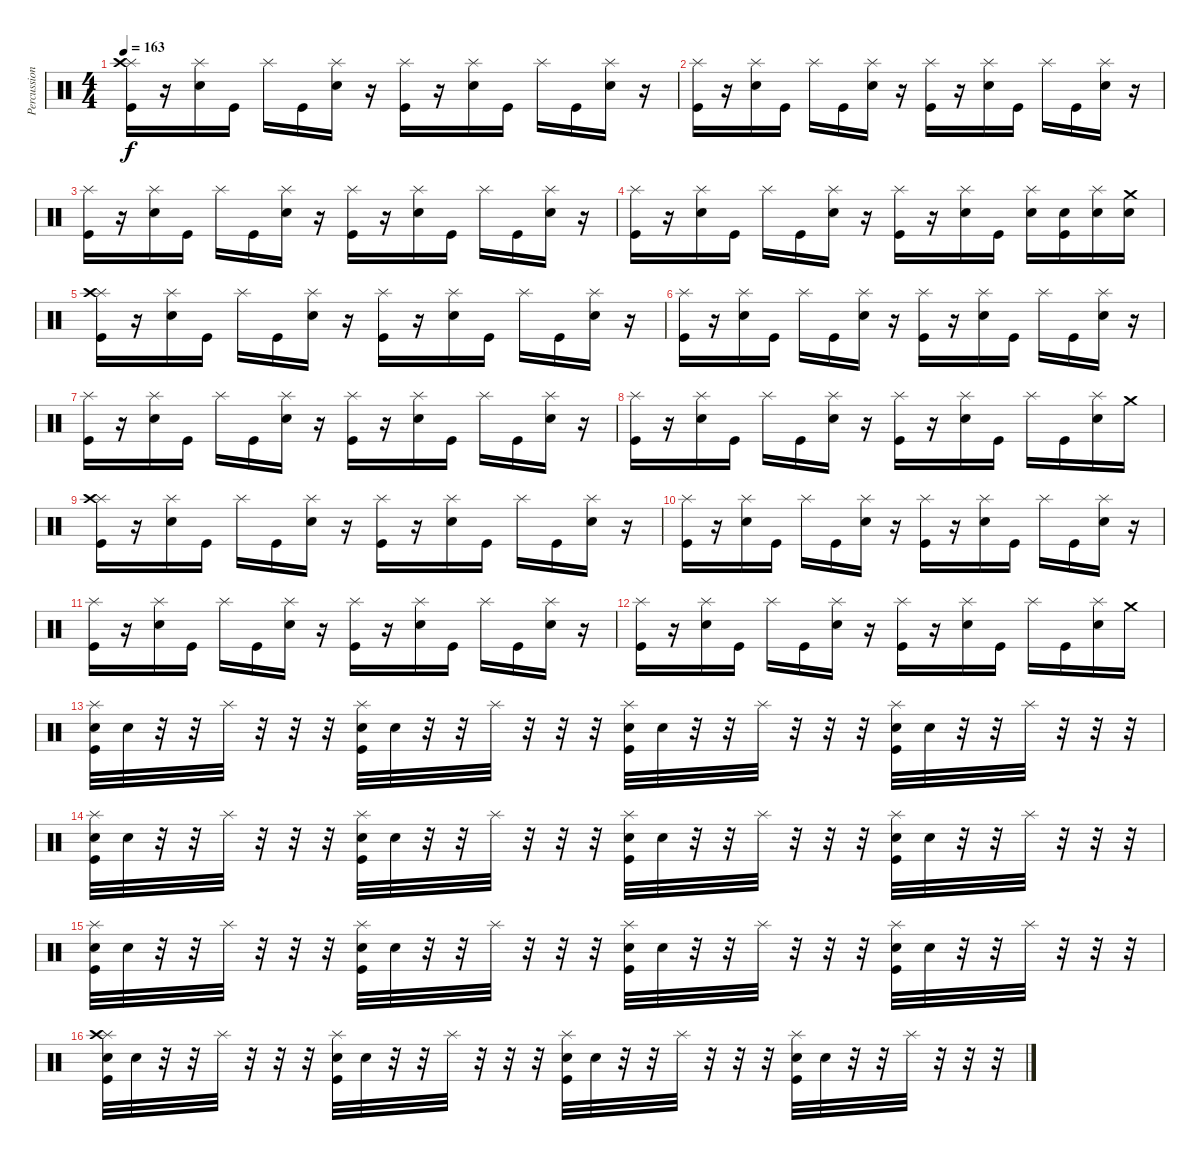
\track ("Percussions" "Percussion") {instrument percussion}
\staff {score}
\articulation defaults
\ts (4 4)
\tempo 163
\clef neutral
\ks c
("Splash (hit)" "Crash high (hit)" "Kick (hit)").16{dy f} r.16 ("Splash (hit)" "Snare (hit) 2").16 "Kick (hit)".16 "Splash (hit)".16 "Kick (hit)".16 ("Splash (hit)" "Snare (hit) 2").16 r.16 ("Splash (hit)" "Kick (hit)").16 r.16 ("Splash (hit)" "Snare (hit) 2").16 "Kick (hit)".16 "Splash (hit)".16 "Kick (hit)".16 ("Splash (hit)" "Snare (hit) 2").16 r.16 |
("Splash (hit)" "Kick (hit)").16 r.16 ("Splash (hit)" "Snare (hit) 2").16 "Kick (hit)".16 "Splash (hit)".16 "Kick (hit)".16 ("Splash (hit)" "Snare (hit) 2").16 r.16 ("Splash (hit)" "Kick (hit)").16 r.16 ("Splash (hit)" "Snare (hit) 2").16 "Kick (hit)".16 "Splash (hit)".16 "Kick (hit)".16 ("Splash (hit)" "Snare (hit) 2").16 r.16 |
("Splash (hit)" "Kick (hit)").16 r.16 ("Splash (hit)" "Snare (hit) 2").16 "Kick (hit)".16 "Splash (hit)".16 "Kick (hit)".16 ("Splash (hit)" "Snare (hit) 2").16 r.16 ("Splash (hit)" "Kick (hit)").16 r.16 ("Splash (hit)" "Snare (hit) 2").16 "Kick (hit)".16 "Splash (hit)".16 "Kick (hit)".16 ("Splash (hit)" "Snare (hit) 2").16 r.16 |
("Splash (hit)" "Kick (hit)").16 r.16 ("Splash (hit)" "Snare (hit) 2").16 "Kick (hit)".16 "Splash (hit)".16 "Kick (hit)".16 ("Splash (hit)" "Snare (hit) 2").16 r.16 ("Splash (hit)" "Kick (hit)").16 r.16 ("Splash (hit)" "Snare (hit) 2").16 "Kick (hit)".16 ("Splash (hit)" "Snare (hit) 2").16 ("Snare (hit) 2" "Kick (hit)").16 ("Splash (hit)" "Snare (hit) 2").16 ("Crash medium (hit)" "Snare (hit) 2").16 |
("Splash (hit)" "Crash high (hit)" "Kick (hit)").16 r.16 ("Splash (hit)" "Snare (hit) 2").16 "Kick (hit)".16 "Splash (hit)".16 "Kick (hit)".16 ("Splash (hit)" "Snare (hit) 2").16 r.16 ("Splash (hit)" "Kick (hit)").16 r.16 ("Splash (hit)" "Snare (hit) 2").16 "Kick (hit)".16 "Splash (hit)".16 "Kick (hit)".16 ("Splash (hit)" "Snare (hit) 2").16 r.16 |
("Splash (hit)" "Kick (hit)").16 r.16 ("Splash (hit)" "Snare (hit) 2").16 "Kick (hit)".16 "Splash (hit)".16 "Kick (hit)".16 ("Splash (hit)" "Snare (hit) 2").16 r.16 ("Splash (hit)" "Kick (hit)").16 r.16 ("Splash (hit)" "Snare (hit) 2").16 "Kick (hit)".16 "Splash (hit)".16 "Kick (hit)".16 ("Splash (hit)" "Snare (hit) 2").16 r.16 |
("Splash (hit)" "Kick (hit)").16 r.16 ("Splash (hit)" "Snare (hit) 2").16 "Kick (hit)".16 "Splash (hit)".16 "Kick (hit)".16 ("Splash (hit)" "Snare (hit) 2").16 r.16 ("Splash (hit)" "Kick (hit)").16 r.16 ("Splash (hit)" "Snare (hit) 2").16 "Kick (hit)".16 "Splash (hit)".16 "Kick (hit)".16 ("Splash (hit)" "Snare (hit) 2").16 r.16 |
("Splash (hit)" "Kick (hit)").16 r.16 ("Splash (hit)" "Snare (hit) 2").16 "Kick (hit)".16 "Splash (hit)".16 "Kick (hit)".16 ("Splash (hit)" "Snare (hit) 2").16 r.16 ("Splash (hit)" "Kick (hit)").16 r.16 ("Splash (hit)" "Snare (hit) 2").16 "Kick (hit)".16 "Splash (hit)".16 "Kick (hit)".16 ("Splash (hit)" "Snare (hit) 2").16 "Crash medium (hit)".16 |
("Splash (hit)" "Crash high (hit)" "Kick (hit)").16 r.16 ("Splash (hit)" "Snare (hit) 2").16 "Kick (hit)".16 "Splash (hit)".16 "Kick (hit)".16 ("Splash (hit)" "Snare (hit) 2").16 r.16 ("Splash (hit)" "Kick (hit)").16 r.16 ("Splash (hit)" "Snare (hit) 2").16 "Kick (hit)".16 "Splash (hit)".16 "Kick (hit)".16 ("Splash (hit)" "Snare (hit) 2").16 r.16 |
("Splash (hit)" "Kick (hit)").16 r.16 ("Splash (hit)" "Snare (hit) 2").16 "Kick (hit)".16 "Splash (hit)".16 "Kick (hit)".16 ("Splash (hit)" "Snare (hit) 2").16 r.16 ("Splash (hit)" "Kick (hit)").16 r.16 ("Splash (hit)" "Snare (hit) 2").16 "Kick (hit)".16 "Splash (hit)".16 "Kick (hit)".16 ("Splash (hit)" "Snare (hit) 2").16 r.16 |
("Splash (hit)" "Kick (hit)").16 r.16 ("Splash (hit)" "Snare (hit) 2").16 "Kick (hit)".16 "Splash (hit)".16 "Kick (hit)".16 ("Splash (hit)" "Snare (hit) 2").16 r.16 ("Splash (hit)" "Kick (hit)").16 r.16 ("Splash (hit)" "Snare (hit) 2").16 "Kick (hit)".16 "Splash (hit)".16 "Kick (hit)".16 ("Splash (hit)" "Snare (hit) 2").16 r.16 |
("Splash (hit)" "Kick (hit)").16 r.16 ("Splash (hit)" "Snare (hit) 2").16 "Kick (hit)".16 "Splash (hit)".16 "Kick (hit)".16 ("Splash (hit)" "Snare (hit) 2").16 r.16 ("Splash (hit)" "Kick (hit)").16 r.16 ("Splash (hit)" "Snare (hit) 2").16 "Kick (hit)".16 "Splash (hit)".16 "Kick (hit)".16 ("Splash (hit)" "Snare (hit) 2").16 "Crash medium (hit)".16 |
("Splash (hit)" "Snare (hit) 2" "Kick (hit)").32 "Snare (hit) 2".32 r.32 r.32 "Splash (hit)".32 r.32 r.32 r.32 ("Splash (hit)" "Snare (hit) 2" "Kick (hit)").32 "Snare (hit) 2".32 r.32 r.32 "Splash (hit)".32 r.32 r.32 r.32 ("Splash (hit)" "Snare (hit) 2" "Kick (hit)").32 "Snare (hit) 2".32 r.32 r.32 "Splash (hit)".32 r.32 r.32 r.32 ("Splash (hit)" "Snare (hit) 2" "Kick (hit)").32 "Snare (hit) 2".32 r.32 r.32 "Splash (hit)".32 r.32 r.32 r.32 |
("Splash (hit)" "Snare (hit) 2" "Kick (hit)").32 "Snare (hit) 2".32 r.32 r.32 "Splash (hit)".32 r.32 r.32 r.32 ("Splash (hit)" "Snare (hit) 2" "Kick (hit)").32 "Snare (hit) 2".32 r.32 r.32 "Splash (hit)".32 r.32 r.32 r.32 ("Splash (hit)" "Snare (hit) 2" "Kick (hit)").32 "Snare (hit) 2".32 r.32 r.32 "Splash (hit)".32 r.32 r.32 r.32 ("Splash (hit)" "Snare (hit) 2" "Kick (hit)").32 "Snare (hit) 2".32 r.32 r.32 "Splash (hit)".32 r.32 r.32 r.32 |
("Splash (hit)" "Snare (hit) 2" "Kick (hit)").32 "Snare (hit) 2".32 r.32 r.32 "Splash (hit)".32 r.32 r.32 r.32 ("Splash (hit)" "Snare (hit) 2" "Kick (hit)").32 "Snare (hit) 2".32 r.32 r.32 "Splash (hit)".32 r.32 r.32 r.32 ("Splash (hit)" "Snare (hit) 2" "Kick (hit)").32 "Snare (hit) 2".32 r.32 r.32 "Splash (hit)".32 r.32 r.32 r.32 ("Splash (hit)" "Snare (hit) 2" "Kick (hit)").32 "Snare (hit) 2".32 r.32 r.32 "Splash (hit)".32 r.32 r.32 r.32 |
("Splash (hit)" "Crash high (hit)" "Snare (hit) 2" "Kick (hit)").32 "Snare (hit) 2".32 r.32 r.32 "Splash (hit)".32 r.32 r.32 r.32 ("Splash (hit)" "Snare (hit) 2" "Kick (hit)").32 "Snare (hit) 2".32 r.32 r.32 "Splash (hit)".32 r.32 r.32 r.32 ("Splash (hit)" "Snare (hit) 2" "Kick (hit)").32 "Snare (hit) 2".32 r.32 r.32 "Splash (hit)".32 r.32 r.32 r.32 ("Splash (hit)" "Snare (hit) 2" "Kick (hit)").32 "Snare (hit) 2".32 r.32 r.32 "Splash (hit)".32 r.32 r.32 r.32
